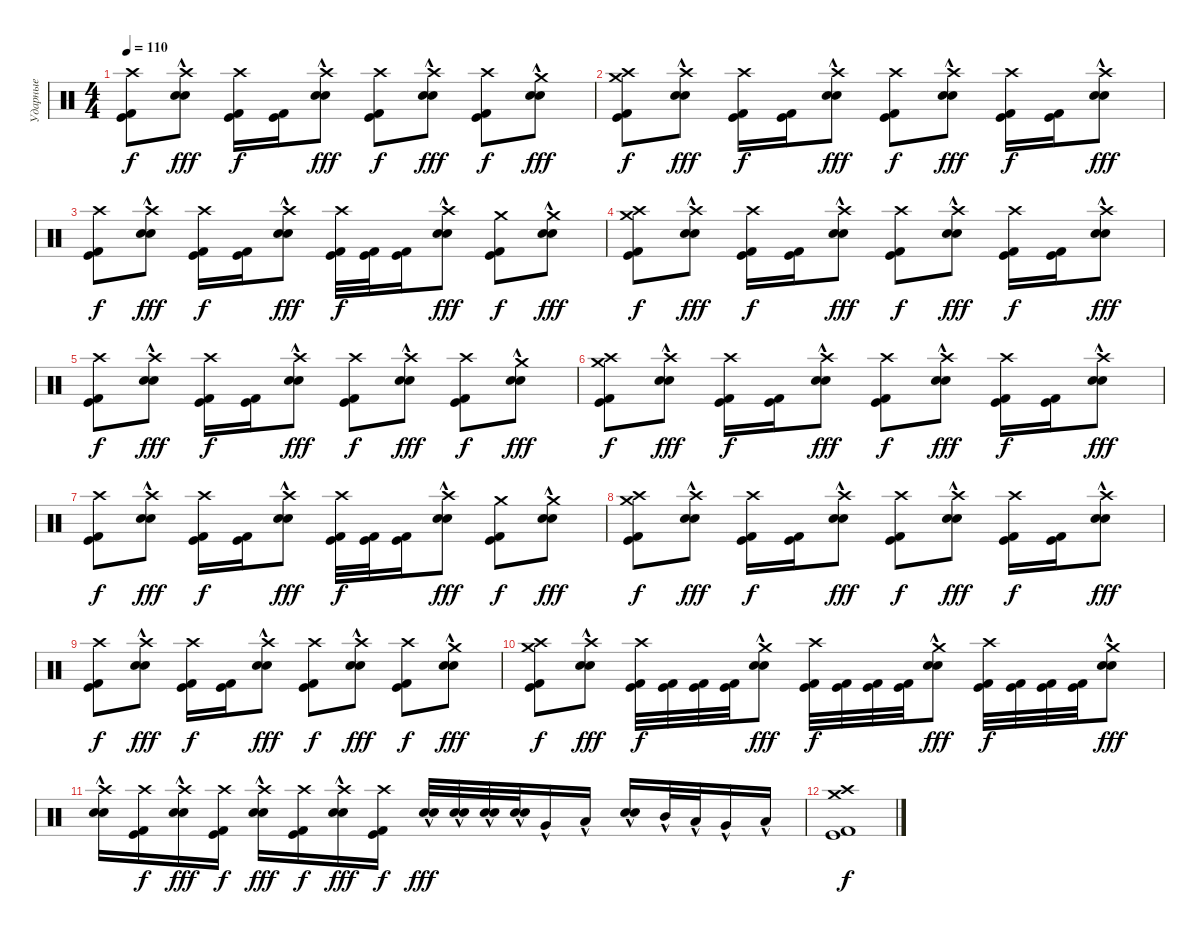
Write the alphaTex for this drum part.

\track ("Ударные" "Ударные") {instrument percussion}
\staff {score}
\articulation defaults
\ts (4 4)
\tempo 110
\clef neutral
\ks c
("Crash high (hit)" "Kick (hit)" "Kick (hit) 2").8{dy f} ("Crash high (hit)" "Snare (hit) 2"{hac} "Electric Snare (hit)"{hac}).8{dy fff} ("Crash high (hit)" "Kick (hit)" "Kick (hit) 2").16{dy f} ("Kick (hit)" "Kick (hit) 2").16 ("Crash high (hit)" "Snare (hit) 2"{hac} "Electric Snare (hit)"{hac}).8{dy fff} ("Crash high (hit)" "Kick (hit)" "Kick (hit) 2").8{dy f} ("Crash high (hit)" "Snare (hit) 2"{hac} "Electric Snare (hit)"{hac}).8{dy fff} ("Crash high (hit)" "Kick (hit)" "Kick (hit) 2").8{dy f} ("Crash medium (hit)" "Snare (hit) 2"{hac} "Electric Snare (hit)"{hac}).8{dy fff} |
("Crash high (hit)" "Kick (hit)" "Kick (hit) 2" "Crash medium (hit)").8{dy f} ("Crash high (hit)" "Snare (hit) 2"{hac} "Electric Snare (hit)"{hac}).8{dy fff} ("Crash high (hit)" "Kick (hit)" "Kick (hit) 2").16{dy f} ("Kick (hit)" "Kick (hit) 2").16 ("Crash high (hit)" "Snare (hit) 2"{hac} "Electric Snare (hit)"{hac}).8{dy fff} ("Crash high (hit)" "Kick (hit)" "Kick (hit) 2").8{dy f} ("Crash high (hit)" "Snare (hit) 2"{hac} "Electric Snare (hit)"{hac}).8{dy fff} ("Crash high (hit)" "Kick (hit)" "Kick (hit) 2").16{dy f} ("Kick (hit)" "Kick (hit) 2").16 ("Crash high (hit)" "Snare (hit) 2"{hac} "Electric Snare (hit)"{hac}).8{dy fff} |
("Crash high (hit)" "Kick (hit)" "Kick (hit) 2").8{dy f} ("Crash high (hit)" "Snare (hit) 2"{hac} "Electric Snare (hit)"{hac}).8{dy fff} ("Crash high (hit)" "Kick (hit)" "Kick (hit) 2").16{dy f} ("Kick (hit)" "Kick (hit) 2").16 ("Crash high (hit)" "Snare (hit) 2"{hac} "Electric Snare (hit)"{hac}).8{dy fff} ("Crash high (hit)" "Kick (hit)" "Kick (hit) 2").32{dy f} ("Kick (hit)" "Kick (hit) 2").32 ("Kick (hit)" "Kick (hit) 2").16 ("Crash high (hit)" "Snare (hit) 2"{hac} "Electric Snare (hit)"{hac}).8{dy fff} ("Crash medium (hit)" "Kick (hit)" "Kick (hit) 2").8{dy f} ("Crash medium (hit)" "Snare (hit) 2"{hac} "Electric Snare (hit)"{hac}).8{dy fff} |
("Crash high (hit)" "Kick (hit)" "Kick (hit) 2" "Crash medium (hit)").8{dy f} ("Crash high (hit)" "Snare (hit) 2"{hac} "Electric Snare (hit)"{hac}).8{dy fff} ("Crash high (hit)" "Kick (hit)" "Kick (hit) 2").16{dy f} ("Kick (hit)" "Kick (hit) 2").16 ("Crash high (hit)" "Snare (hit) 2"{hac} "Electric Snare (hit)"{hac}).8{dy fff} ("Crash high (hit)" "Kick (hit)" "Kick (hit) 2").8{dy f} ("Crash high (hit)" "Snare (hit) 2"{hac} "Electric Snare (hit)"{hac}).8{dy fff} ("Crash high (hit)" "Kick (hit)" "Kick (hit) 2").16{dy f} ("Kick (hit)" "Kick (hit) 2").16 ("Crash high (hit)" "Snare (hit) 2"{hac} "Electric Snare (hit)"{hac}).8{dy fff} |
("Crash high (hit)" "Kick (hit)" "Kick (hit) 2").8{dy f} ("Crash high (hit)" "Snare (hit) 2"{hac} "Electric Snare (hit)"{hac}).8{dy fff} ("Crash high (hit)" "Kick (hit)" "Kick (hit) 2").16{dy f} ("Kick (hit)" "Kick (hit) 2").16 ("Crash high (hit)" "Snare (hit) 2"{hac} "Electric Snare (hit)"{hac}).8{dy fff} ("Crash high (hit)" "Kick (hit)" "Kick (hit) 2").8{dy f} ("Crash high (hit)" "Snare (hit) 2"{hac} "Electric Snare (hit)"{hac}).8{dy fff} ("Crash high (hit)" "Kick (hit)" "Kick (hit) 2").8{dy f} ("Crash medium (hit)" "Snare (hit) 2"{hac} "Electric Snare (hit)"{hac}).8{dy fff} |
("Crash high (hit)" "Kick (hit)" "Kick (hit) 2" "Crash medium (hit)").8{dy f} ("Crash high (hit)" "Snare (hit) 2"{hac} "Electric Snare (hit)"{hac}).8{dy fff} ("Crash high (hit)" "Kick (hit)" "Kick (hit) 2").16{dy f} ("Kick (hit)" "Kick (hit) 2").16 ("Crash high (hit)" "Snare (hit) 2"{hac} "Electric Snare (hit)"{hac}).8{dy fff} ("Crash high (hit)" "Kick (hit)" "Kick (hit) 2").8{dy f} ("Crash high (hit)" "Snare (hit) 2"{hac} "Electric Snare (hit)"{hac}).8{dy fff} ("Crash high (hit)" "Kick (hit)" "Kick (hit) 2").16{dy f} ("Kick (hit)" "Kick (hit) 2").16 ("Crash high (hit)" "Snare (hit) 2"{hac} "Electric Snare (hit)"{hac}).8{dy fff} |
("Crash high (hit)" "Kick (hit)" "Kick (hit) 2").8{dy f} ("Crash high (hit)" "Snare (hit) 2"{hac} "Electric Snare (hit)"{hac}).8{dy fff} ("Crash high (hit)" "Kick (hit)" "Kick (hit) 2").16{dy f} ("Kick (hit)" "Kick (hit) 2").16 ("Crash high (hit)" "Snare (hit) 2"{hac} "Electric Snare (hit)"{hac}).8{dy fff} ("Crash high (hit)" "Kick (hit)" "Kick (hit) 2").32{dy f} ("Kick (hit)" "Kick (hit) 2").32 ("Kick (hit)" "Kick (hit) 2").16 ("Crash high (hit)" "Snare (hit) 2"{hac} "Electric Snare (hit)"{hac}).8{dy fff} ("Crash medium (hit)" "Kick (hit)" "Kick (hit) 2").8{dy f} ("Crash medium (hit)" "Snare (hit) 2"{hac} "Electric Snare (hit)"{hac}).8{dy fff} |
("Crash high (hit)" "Kick (hit)" "Kick (hit) 2" "Crash medium (hit)").8{dy f} ("Crash high (hit)" "Snare (hit) 2"{hac} "Electric Snare (hit)"{hac}).8{dy fff} ("Crash high (hit)" "Kick (hit)" "Kick (hit) 2").16{dy f} ("Kick (hit)" "Kick (hit) 2").16 ("Crash high (hit)" "Snare (hit) 2"{hac} "Electric Snare (hit)"{hac}).8{dy fff} ("Crash high (hit)" "Kick (hit)" "Kick (hit) 2").8{dy f} ("Crash high (hit)" "Snare (hit) 2"{hac} "Electric Snare (hit)"{hac}).8{dy fff} ("Crash high (hit)" "Kick (hit)" "Kick (hit) 2").16{dy f} ("Kick (hit)" "Kick (hit) 2").16 ("Crash high (hit)" "Snare (hit) 2"{hac} "Electric Snare (hit)"{hac}).8{dy fff} |
("Crash high (hit)" "Kick (hit)" "Kick (hit) 2").8{dy f} ("Crash high (hit)" "Snare (hit) 2"{hac} "Electric Snare (hit)"{hac}).8{dy fff} ("Crash high (hit)" "Kick (hit)" "Kick (hit) 2").16{dy f} ("Kick (hit)" "Kick (hit) 2").16 ("Crash high (hit)" "Snare (hit) 2"{hac} "Electric Snare (hit)"{hac}).8{dy fff} ("Crash high (hit)" "Kick (hit)" "Kick (hit) 2").8{dy f} ("Crash high (hit)" "Snare (hit) 2"{hac} "Electric Snare (hit)"{hac}).8{dy fff} ("Crash high (hit)" "Kick (hit)" "Kick (hit) 2").8{dy f} ("Crash medium (hit)" "Snare (hit) 2"{hac} "Electric Snare (hit)"{hac}).8{dy fff} |
("Crash high (hit)" "Kick (hit)" "Kick (hit) 2" "Crash medium (hit)").8{dy f} ("Crash high (hit)" "Snare (hit) 2"{hac} "Electric Snare (hit)"{hac}).8{dy fff} ("Crash high (hit)" "Kick (hit)" "Kick (hit) 2").32{dy f} ("Kick (hit)" "Kick (hit) 2").32 ("Kick (hit)" "Kick (hit) 2").32 ("Kick (hit)" "Kick (hit) 2").32 ("Crash medium (hit)" "Snare (hit) 2"{hac} "Electric Snare (hit)"{hac}).8{dy fff} ("Crash high (hit)" "Kick (hit)" "Kick (hit) 2").32{dy f} ("Kick (hit)" "Kick (hit) 2").32 ("Kick (hit)" "Kick (hit) 2").32 ("Kick (hit)" "Kick (hit) 2").32 ("Crash medium (hit)" "Snare (hit) 2"{hac} "Electric Snare (hit)"{hac}).8{dy fff} ("Crash high (hit)" "Kick (hit)" "Kick (hit) 2").32{dy f} ("Kick (hit)" "Kick (hit) 2").32 ("Kick (hit)" "Kick (hit) 2").32 ("Kick (hit)" "Kick (hit) 2").32 ("Crash medium (hit)" "Snare (hit) 2"{hac} "Electric Snare (hit)"{hac}).8{dy fff} |
("Crash high (hit)" "Snare (hit) 2"{hac} "Electric Snare (hit)"{hac}).16 ("Crash high (hit)" "Kick (hit)" "Kick (hit) 2").16{dy f} ("Crash high (hit)" "Snare (hit) 2"{hac} "Electric Snare (hit)"{hac}).16{dy fff} ("Crash high (hit)" "Kick (hit)" "Kick (hit) 2").16{dy f} ("Crash high (hit)" "Snare (hit) 2"{hac} "Electric Snare (hit)"{hac}).16{dy fff} ("Crash high (hit)" "Kick (hit)" "Kick (hit) 2").16{dy f} ("Crash high (hit)" "Snare (hit) 2"{hac} "Electric Snare (hit)"{hac}).16{dy fff} ("Crash high (hit)" "Kick (hit)" "Kick (hit) 2").16{dy f} ("Snare (hit) 2"{hac} "Electric Snare (hit)"{hac}).32{dy fff} ("Snare (hit) 2"{hac} "Electric Snare (hit)"{hac}).32 ("Snare (hit) 2"{hac} "Electric Snare (hit)"{hac}).32 ("Snare (hit) 2"{hac} "Electric Snare (hit)"{hac}).32 "Very Low Tom (hit)"{hac}.16 "Low Floor Tom (hit)"{hac}.16 ("Snare (hit) 2"{hac} "Electric Snare (hit)"{hac}).16 "Mid Tom (hit)"{hac}.32 "Low Tom (hit)"{hac}.32 "Very Low Tom (hit)"{hac}.16 "Low Floor Tom (hit)"{hac}.16 |
("Crash high (hit)" "Kick (hit)" "Kick (hit) 2" "Crash medium (hit)").1{dy f}
